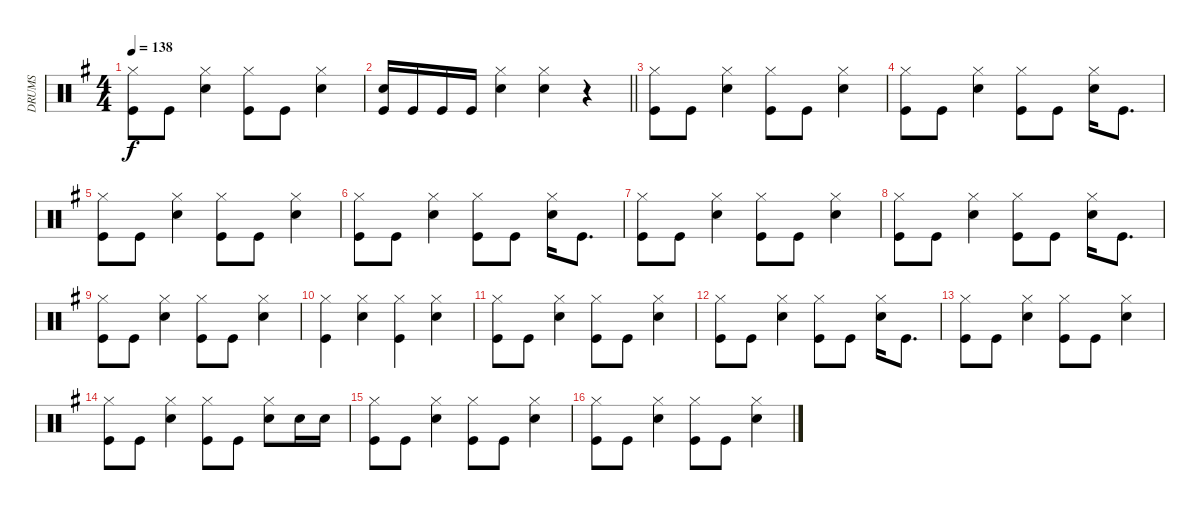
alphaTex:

\track ("DRUMS" "DRUMS") {instrument percussion}
\staff {score}
\articulation defaults
\ts (4 4)
\tempo 138
\clef neutral
\ks eminor
("Hi-Hat (closed)" "Kick (hit)").8{dy f} "Kick (hit)".8 ("Hi-Hat (closed)" "Snare (hit) 2").4 ("Hi-Hat (closed)" "Kick (hit)").8 "Kick (hit)".8 ("Hi-Hat (closed)" "Snare (hit) 2").4 |
\barLineRight lightlight
("Snare (hit) 2" "Kick (hit)").16 "Kick (hit)".16 "Kick (hit)".16 "Kick (hit)".16 ("Hi-Hat (closed)" "Snare (hit) 2").4 ("Hi-Hat (closed)" "Snare (hit) 2").4 r.4 |
("Hi-Hat (closed)" "Kick (hit)").8 "Kick (hit)".8 ("Hi-Hat (closed)" "Snare (hit) 2").4 ("Hi-Hat (closed)" "Kick (hit)").8 "Kick (hit)".8 ("Hi-Hat (closed)" "Snare (hit) 2").4 |
("Hi-Hat (closed)" "Kick (hit)").8 "Kick (hit)".8 ("Hi-Hat (closed)" "Snare (hit) 2").4 ("Hi-Hat (closed)" "Kick (hit)").8 "Kick (hit)".8 ("Hi-Hat (closed)" "Snare (hit) 2").16 "Kick (hit)".8{d} |
("Hi-Hat (closed)" "Kick (hit)").8 "Kick (hit)".8 ("Hi-Hat (closed)" "Snare (hit) 2").4 ("Hi-Hat (closed)" "Kick (hit)").8 "Kick (hit)".8 ("Hi-Hat (closed)" "Snare (hit) 2").4 |
("Hi-Hat (closed)" "Kick (hit)").8 "Kick (hit)".8 ("Hi-Hat (closed)" "Snare (hit) 2").4 ("Hi-Hat (closed)" "Kick (hit)").8 "Kick (hit)".8 ("Hi-Hat (closed)" "Snare (hit) 2").16 "Kick (hit)".8{d} |
("Hi-Hat (closed)" "Kick (hit)").8 "Kick (hit)".8 ("Hi-Hat (closed)" "Snare (hit) 2").4 ("Hi-Hat (closed)" "Kick (hit)").8 "Kick (hit)".8 ("Hi-Hat (closed)" "Snare (hit) 2").4 |
("Hi-Hat (closed)" "Kick (hit)").8 "Kick (hit)".8 ("Hi-Hat (closed)" "Snare (hit) 2").4 ("Hi-Hat (closed)" "Kick (hit)").8 "Kick (hit)".8 ("Hi-Hat (closed)" "Snare (hit) 2").16 "Kick (hit)".8{d} |
("Hi-Hat (closed)" "Kick (hit)").8 "Kick (hit)".8 ("Hi-Hat (closed)" "Snare (hit) 2").4 ("Hi-Hat (closed)" "Kick (hit)").8 "Kick (hit)".8 ("Hi-Hat (closed)" "Snare (hit) 2").4 |
("Hi-Hat (closed)" "Kick (hit)").4 ("Hi-Hat (closed)" "Snare (hit) 2").4 ("Hi-Hat (closed)" "Kick (hit)").4 ("Hi-Hat (closed)" "Snare (hit) 2").4 |
("Hi-Hat (closed)" "Kick (hit)").8 "Kick (hit)".8 ("Hi-Hat (closed)" "Snare (hit) 2").4 ("Hi-Hat (closed)" "Kick (hit)").8 "Kick (hit)".8 ("Hi-Hat (closed)" "Snare (hit) 2").4 |
("Hi-Hat (closed)" "Kick (hit)").8 "Kick (hit)".8 ("Hi-Hat (closed)" "Snare (hit) 2").4 ("Hi-Hat (closed)" "Kick (hit)").8 "Kick (hit)".8 ("Hi-Hat (closed)" "Snare (hit) 2").16 "Kick (hit)".8{d} |
("Hi-Hat (closed)" "Kick (hit)").8 "Kick (hit)".8 ("Hi-Hat (closed)" "Snare (hit) 2").4 ("Hi-Hat (closed)" "Kick (hit)").8 "Kick (hit)".8 ("Hi-Hat (closed)" "Snare (hit) 2").4 |
("Hi-Hat (closed)" "Kick (hit)").8 "Kick (hit)".8 ("Hi-Hat (closed)" "Snare (hit) 2").4 ("Hi-Hat (closed)" "Kick (hit)").8 "Kick (hit)".8 ("Hi-Hat (closed)" "Snare (hit) 2").8 "Snare (hit) 2".16 "Snare (hit) 2".16 |
("Hi-Hat (closed)" "Kick (hit)").8 "Kick (hit)".8 ("Hi-Hat (closed)" "Snare (hit) 2").4 ("Hi-Hat (closed)" "Kick (hit)").8 "Kick (hit)".8 ("Hi-Hat (closed)" "Snare (hit) 2").4 |
("Hi-Hat (closed)" "Kick (hit)").8 "Kick (hit)".8 ("Hi-Hat (closed)" "Snare (hit) 2").4 ("Hi-Hat (closed)" "Kick (hit)").8 "Kick (hit)".8 ("Hi-Hat (closed)" "Snare (hit) 2").4
